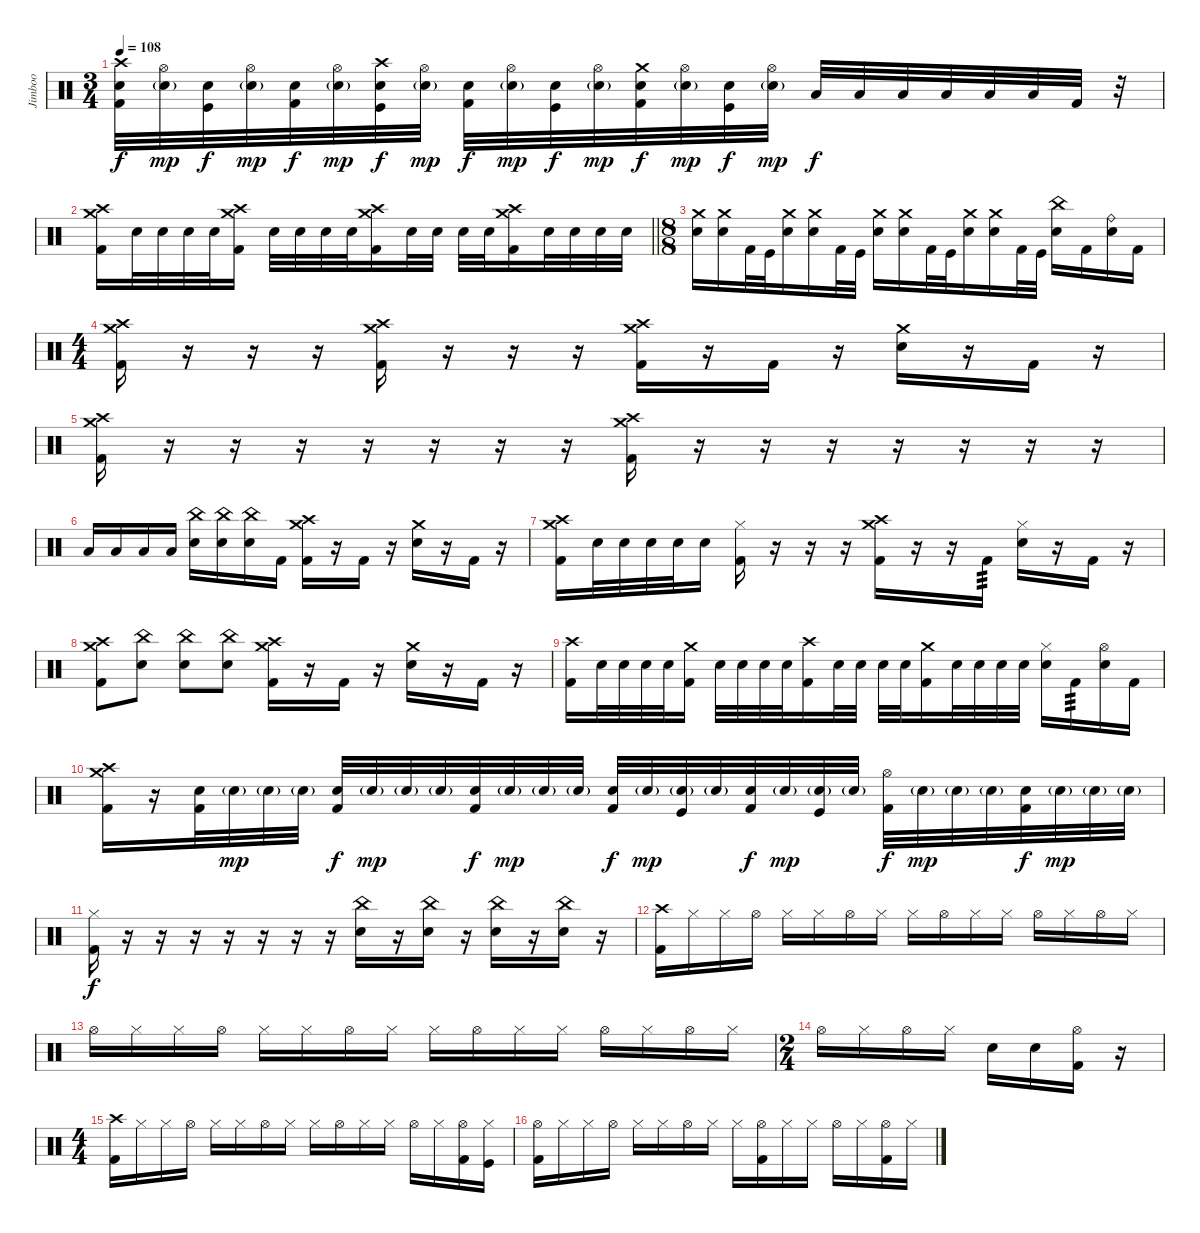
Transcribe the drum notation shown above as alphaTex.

\track ("Jimboo" "Jimboo") {instrument percussion}
\staff
\articulation defaults
\ts (3 4)
\tempo 108
\clef neutral
\ks c
("Electric Snare (hit)" "Crash high (hit)" "Kick (hit) 2").32{dy f} ("Electric Snare (hit)"{g} "Hi-Hat (open)").32{dy mp} ("Electric Snare (hit)" "Kick (hit)").32{dy f} ("Electric Snare (hit)"{g} "Hi-Hat (open)").32{dy mp} ("Electric Snare (hit)" "Kick (hit) 2").32{dy f} ("Electric Snare (hit)"{g} "Hi-Hat (open)").32{dy mp} ("Electric Snare (hit)" "Crash high (hit)" "Kick (hit)").32{dy f} ("Electric Snare (hit)"{g} "Hi-Hat (open)").32{dy mp} ("Electric Snare (hit)" "Kick (hit) 2").32{dy f} ("Electric Snare (hit)"{g} "Hi-Hat (open)").32{dy mp} ("Electric Snare (hit)" "Kick (hit)").32{dy f} ("Electric Snare (hit)"{g} "Hi-Hat (open)").32{dy mp} ("Electric Snare (hit)" "Crash medium (hit)" "Kick (hit) 2").32{dy f} ("Electric Snare (hit)"{g} "Hi-Hat (open)").32{dy mp} ("Electric Snare (hit)" "Kick (hit)").32{dy f} ("Electric Snare (hit)"{g} "Hi-Hat (open)").32{dy mp} "Low Tom (hit)".32{dy f} "Low Tom (hit)".32 "Low Tom (hit)".32 "Low Floor Tom (hit)".32 "Low Floor Tom (hit)".32 "Low Floor Tom (hit)".32 "Kick (hit) 2".32 r.32 |
\barLineRight lightlight
("Kick (hit) 2" "Crash medium (hit)" "Crash high (hit)").16 "Electric Snare (hit)".32 "Electric Snare (hit)".32 "Electric Snare (hit)".32 "Electric Snare (hit)".32 ("Kick (hit) 2" "Crash medium (hit)" "Crash high (hit)").16 "Electric Snare (hit)".32 "Electric Snare (hit)".32 "Electric Snare (hit)".32 "Electric Snare (hit)".32 ("Kick (hit) 2" "Crash medium (hit)" "Crash high (hit)").16 "Electric Snare (hit)".32 "Electric Snare (hit)".32 "Electric Snare (hit)".32 "Electric Snare (hit)".32 ("Kick (hit) 2" "Crash medium (hit)" "Crash high (hit)").16 "Electric Snare (hit)".32 "Electric Snare (hit)".32 "Electric Snare (hit)".32 "Electric Snare (hit)".32 |
\ts (8 8)
("Electric Snare (hit)" "Crash medium (hit)").16 ("Electric Snare (hit)" "Crash medium (hit)").16 "Kick (hit) 2".32 "Kick (hit)".32 ("Electric Snare (hit)" "Crash medium (hit)").16 ("Electric Snare (hit)" "Crash medium (hit)").16 "Kick (hit) 2".32 "Kick (hit)".32 ("Electric Snare (hit)" "Crash medium (hit)").16 ("Electric Snare (hit)" "Crash medium (hit)").16 "Kick (hit) 2".32 "Kick (hit)".32 ("Electric Snare (hit)" "Crash medium (hit)").16 ("Electric Snare (hit)" "Crash medium (hit)").16 "Kick (hit) 2".32 "Kick (hit)".32 ("Electric Snare (hit)" "China (hit)").16 "Kick (hit) 2".16 ("Electric Snare (hit)" "Ride (bell)").16 "Kick (hit) 2".16 |
\ts (4 4)
("Kick (hit) 2" "Crash medium (hit)" "Crash high (hit)").16 r.16 r.16 r.16 ("Kick (hit) 2" "Crash medium (hit)" "Crash high (hit)").16 r.16 r.16 r.16 ("Kick (hit) 2" "Crash medium (hit)" "Crash high (hit)").16 r.16 "Kick (hit) 2".16 r.16 ("Electric Snare (hit)" "Crash medium (hit)").16 r.16 "Kick (hit) 2".16 r.16 |
("Kick (hit) 2" "Crash medium (hit)" "Crash high (hit)").16 r.16 r.16 r.16 r.16 r.16 r.16 r.16 ("Crash medium (hit)" "Crash high (hit)" "Kick (hit) 2").16 r.16 r.16 r.16 r.16 r.16 r.16 r.16 |
"Low Tom (hit)".16 "Low Tom (hit)".16 "Low Floor Tom (hit)".16 "Low Floor Tom (hit)".16 ("Electric Snare (hit)" "China (hit)").16 ("Electric Snare (hit)" "China (hit)").16 ("Electric Snare (hit)" "China (hit)").16 "Kick (hit) 2".16 ("Kick (hit) 2" "Crash medium (hit)" "Crash high (hit)").16 r.16 "Kick (hit) 2".16 r.16 ("Electric Snare (hit)" "Crash medium (hit)").16 r.16 "Kick (hit) 2".16 r.16 |
("Kick (hit) 2" "Crash medium (hit)" "Crash high (hit)").16 "Electric Snare (hit)".32 "Electric Snare (hit)".32 "Electric Snare (hit)".32 "Electric Snare (hit)".32 "Electric Snare (hit)".16 ("Kick (hit) 2" "Hi-Hat (closed)").16 r.16 r.16 r.16 ("Kick (hit) 2" "Crash medium (hit)" "Crash high (hit)").16 r.16 r.16 "Kick (hit) 2".16{tp 3} ("Electric Snare (hit)" "Hi-Hat (closed)").16 r.16 "Kick (hit) 2".16 r.16 |
("Kick (hit) 2" "Crash medium (hit)" "Crash high (hit)").8 ("Electric Snare (hit)" "China (hit)").8 ("Electric Snare (hit)" "China (hit)").8 ("Electric Snare (hit)" "China (hit)").8 ("Kick (hit) 2" "Crash medium (hit)" "Crash high (hit)").16 r.16 "Kick (hit) 2".16 r.16 ("Electric Snare (hit)" "Crash medium (hit)").16 r.16 "Kick (hit) 2".16 r.16 |
("Kick (hit) 2" "Crash high (hit)").16 "Electric Snare (hit)".32 "Electric Snare (hit)".32 "Electric Snare (hit)".32 "Electric Snare (hit)".32 ("Kick (hit) 2" "Crash medium (hit)").16 "Electric Snare (hit)".32 "Electric Snare (hit)".32 "Electric Snare (hit)".32 "Electric Snare (hit)".32 ("Kick (hit) 2" "Crash high (hit)").16 "Electric Snare (hit)".32 "Electric Snare (hit)".32 "Electric Snare (hit)".32 "Electric Snare (hit)".32 ("Kick (hit) 2" "Crash medium (hit)").16 "Electric Snare (hit)".32 "Electric Snare (hit)".32 "Electric Snare (hit)".32 "Electric Snare (hit)".32 ("Electric Snare (hit)" "Hi-Hat (closed)").16 "Kick (hit) 2".16{tp 3} ("Electric Snare (hit)" "Hi-Hat (open)").16 "Kick (hit) 2".16 |
("Kick (hit) 2" "Crash medium (hit)" "Crash high (hit)").16 r.16 ("Electric Snare (hit)" "Kick (hit) 2").32 "Electric Snare (hit)"{g}.32{dy mp} "Electric Snare (hit)"{g}.32 "Electric Snare (hit)"{g}.32 ("Electric Snare (hit)" "Kick (hit) 2").32{dy f} "Electric Snare (hit)"{g}.32{dy mp} "Electric Snare (hit)"{g}.32 "Electric Snare (hit)"{g}.32 ("Electric Snare (hit)" "Kick (hit) 2").32{dy f} "Electric Snare (hit)"{g}.32{dy mp} "Electric Snare (hit)"{g}.32 "Electric Snare (hit)"{g}.32 ("Electric Snare (hit)" "Kick (hit) 2").32{dy f} "Electric Snare (hit)"{g}.32{dy mp} ("Electric Snare (hit)"{g} "Kick (hit)").32 "Electric Snare (hit)"{g}.32 ("Electric Snare (hit)" "Kick (hit) 2").32{dy f} "Electric Snare (hit)"{g}.32{dy mp} ("Electric Snare (hit)"{g} "Kick (hit)").32 "Electric Snare (hit)"{g}.32 ("Hi-Hat (open)" "Kick (hit) 2").32{dy f} "Electric Snare (hit)"{g}.32{dy mp} "Electric Snare (hit)"{g}.32 "Electric Snare (hit)"{g}.32 ("Electric Snare (hit)" "Kick (hit) 2").32{dy f} "Electric Snare (hit)"{g}.32{dy mp} "Electric Snare (hit)"{g}.32 "Electric Snare (hit)"{g}.32 |
("Kick (hit) 2" "Hi-Hat (closed)").16{dy f} r.16 r.16 r.16 r.16 r.16 r.16 r.16 ("Electric Snare (hit)" "China (hit)").16 r.16 ("Electric Snare (hit)" "China (hit)").16 r.16 ("Electric Snare (hit)" "China (hit)").16 r.16 ("Electric Snare (hit)" "China (hit)").16 r.16 |
("Crash high (hit)" "Kick (hit) 2").16 "Hi-Hat (closed)".16 "Hi-Hat (closed)".16 "Hi-Hat (open)".16 "Hi-Hat (closed)".16 "Hi-Hat (closed)".16 "Hi-Hat (open)".16 "Hi-Hat (closed)".16 "Hi-Hat (closed)".16 "Hi-Hat (open)".16 "Hi-Hat (closed)".16 "Hi-Hat (closed)".16 "Hi-Hat (open)".16 "Hi-Hat (closed)".16 "Hi-Hat (open)".16 "Hi-Hat (closed)".16 |
"Hi-Hat (open)".16 "Hi-Hat (closed)".16 "Hi-Hat (closed)".16 "Hi-Hat (open)".16 "Hi-Hat (closed)".16 "Hi-Hat (closed)".16 "Hi-Hat (open)".16 "Hi-Hat (closed)".16 "Hi-Hat (closed)".16 "Hi-Hat (open)".16 "Hi-Hat (closed)".16 "Hi-Hat (closed)".16 "Hi-Hat (open)".16 "Hi-Hat (closed)".16 "Hi-Hat (open)".16 "Hi-Hat (closed)".16 |
\ts (2 4)
"Hi-Hat (open)".16 "Hi-Hat (closed)".16 "Hi-Hat (open)".16 "Hi-Hat (closed)".16 "Electric Snare (hit)".16 "Electric Snare (hit)".16 ("Hi-Hat (open)" "Kick (hit) 2").16 r.16 |
\ts (4 4)
("Crash high (hit)" "Kick (hit) 2").16 "Hi-Hat (closed)".16 "Hi-Hat (closed)".16 "Hi-Hat (open)".16 "Hi-Hat (closed)".16 "Hi-Hat (closed)".16 "Hi-Hat (open)".16 "Hi-Hat (closed)".16 "Hi-Hat (closed)".16 "Hi-Hat (open)".16 "Hi-Hat (closed)".16 "Hi-Hat (closed)".16 "Hi-Hat (open)".16 "Hi-Hat (closed)".16 ("Hi-Hat (open)" "Kick (hit) 2").16 ("Hi-Hat (closed)" "Kick (hit)").16 |
("Hi-Hat (open)" "Kick (hit) 2").16 "Hi-Hat (closed)".16 "Hi-Hat (closed)".16 "Hi-Hat (open)".16 "Hi-Hat (closed)".16 "Hi-Hat (closed)".16 "Hi-Hat (open)".16 "Hi-Hat (closed)".16 "Hi-Hat (closed)".16 ("Hi-Hat (open)" "Kick (hit) 2").16 "Hi-Hat (closed)".16 "Hi-Hat (closed)".16 "Hi-Hat (open)".16 "Hi-Hat (closed)".16 ("Hi-Hat (open)" "Kick (hit) 2").16 "Hi-Hat (closed)".16
